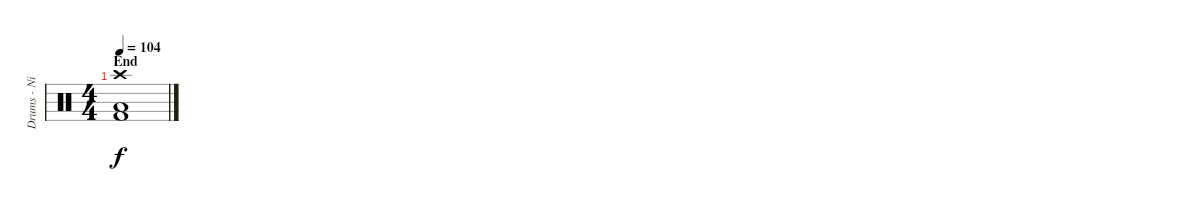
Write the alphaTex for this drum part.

\track ("Drums - Nick Jago" "Drums - Ni") {instrument percussion}
\staff {score}
\articulation defaults
\ts (4 4)
\section ("" "End")
\tempo 104
\clef neutral
\ks c
("Crash high (hit)" "Low Floor Tom (hit)" "Kick (hit) 2").1{dy f}
